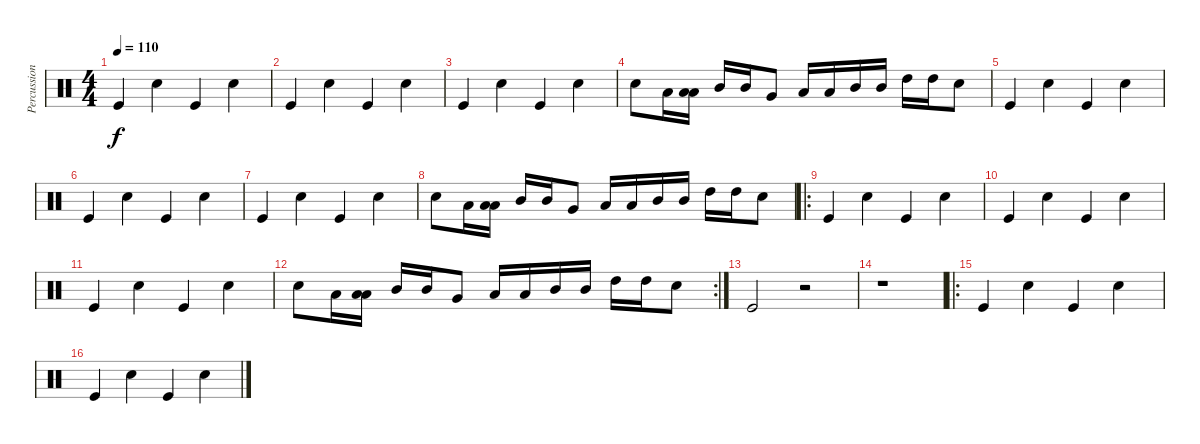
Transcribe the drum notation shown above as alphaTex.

\track ("Percussion" "Percussion") {instrument percussion}
\staff {score}
\articulation defaults
\ts (4 4)
\tempo 110
\clef neutral
\ks c "Kick (hit)".4{dy f} "Electric Snare (hit)".4 "Kick (hit)".4 "Electric Snare (hit)".4
|
"Kick (hit)".4 "Electric Snare (hit)".4 "Kick (hit)".4 "Electric Snare (hit)".4 |
"Kick (hit)".4 "Electric Snare (hit)".4 "Kick (hit)".4 "Electric Snare (hit)".4 |
"Electric Snare (hit)".8 "Low Tom (hit)".16 ("Low Tom (hit)" "Low Tom (hit)").16 "Mid Tom (hit)".16 "Mid Tom (hit)".16 "Very Low Tom (hit)".8 "Low Tom (hit)".16 "Low Tom (hit)".16 "Mid Tom (hit)".16 "Mid Tom (hit)".16 "High Tom (hit)".16 "High Tom (hit)".16 "Electric Snare (hit)".8 |
"Kick (hit)".4 "Electric Snare (hit)".4 "Kick (hit)".4 "Electric Snare (hit)".4 |
"Kick (hit)".4 "Electric Snare (hit)".4 "Kick (hit)".4 "Electric Snare (hit)".4 |
"Kick (hit)".4 "Electric Snare (hit)".4 "Kick (hit)".4 "Electric Snare (hit)".4 |
"Electric Snare (hit)".8 "Low Tom (hit)".16 ("Low Tom (hit)" "Low Tom (hit)").16 "Mid Tom (hit)".16 "Mid Tom (hit)".16 "Very Low Tom (hit)".8 "Low Tom (hit)".16 "Low Tom (hit)".16 "Mid Tom (hit)".16 "Mid Tom (hit)".16 "High Tom (hit)".16 "High Tom (hit)".16 "Electric Snare (hit)".8 |
\ro "Kick (hit)".4 "Electric Snare (hit)".4 "Kick (hit)".4 "Electric Snare (hit)".4
|
"Kick (hit)".4 "Electric Snare (hit)".4 "Kick (hit)".4 "Electric Snare (hit)".4 |
"Kick (hit)".4 "Electric Snare (hit)".4 "Kick (hit)".4 "Electric Snare (hit)".4 |
\rc 2 "Electric Snare (hit)".8 "Low Tom (hit)".16
("Low Tom (hit)" "Low Tom (hit)").16 "Mid Tom (hit)".16 "Mid Tom (hit)".16 "Very Low Tom (hit)".8 "Low Tom (hit)".16 "Low Tom (hit)".16 "Mid Tom (hit)".16 "Mid Tom (hit)".16 "High Tom (hit)".16 "High Tom (hit)".16 "Electric Snare (hit)".8 |
"Kick (hit)".2 r.2 |
r.1 |
\ro "Kick (hit)".4 "Electric Snare (hit)".4 "Kick (hit)".4 "Electric Snare (hit)".4
|
"Kick (hit)".4 "Electric Snare (hit)".4 "Kick (hit)".4 "Electric Snare (hit)".4
